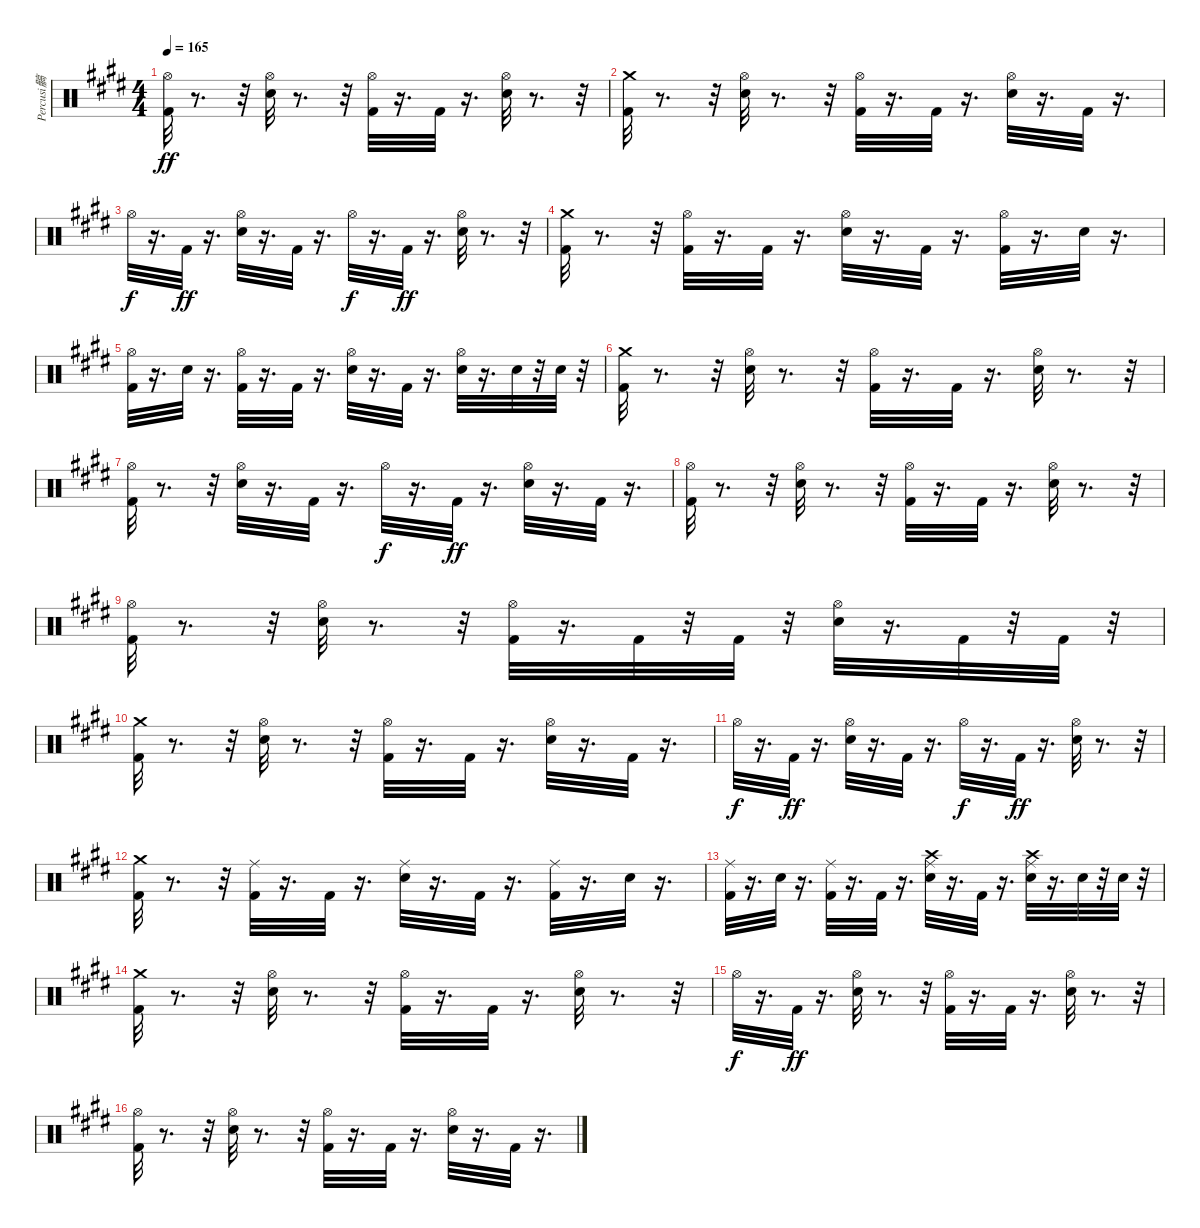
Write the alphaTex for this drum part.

\track ("Percusi髇" "Percusi髇") {instrument percussion}
\staff {score}
\articulation defaults
\ts (4 4)
\tempo 165
\clef neutral
\ks e
("Kick (hit) 2" "Hi-Hat (open)").32{dy ff} r.8{d} r.32 ("Electric Snare (hit)" "Hi-Hat (open)").32 r.8{d} r.32 ("Kick (hit) 2" "Hi-Hat (open)").32 r.16{d} "Kick (hit) 2".32 r.16{d} ("Electric Snare (hit)" "Hi-Hat (open)").32 r.8{d} r.32 |
("Crash medium (hit)" "Kick (hit) 2").32 r.8{d} r.32 ("Electric Snare (hit)" "Hi-Hat (open)").32 r.8{d} r.32 ("Kick (hit) 2" "Hi-Hat (open)").32 r.16{d} "Kick (hit) 2".32 r.16{d} ("Electric Snare (hit)" "Hi-Hat (open)").32 r.16{d} "Kick (hit) 2".32 r.16{d} |
"Hi-Hat (open)".32{dy f} r.16{d} "Kick (hit) 2".32{dy ff} r.16{d} ("Electric Snare (hit)" "Hi-Hat (open)").32 r.16{d} "Kick (hit) 2".32 r.16{d} "Hi-Hat (open)".32{dy f} r.16{d} "Kick (hit) 2".32{dy ff} r.16{d} ("Electric Snare (hit)" "Hi-Hat (open)").32 r.8{d} r.32 |
("Crash medium (hit)" "Kick (hit) 2").32 r.8{d} r.32 ("Kick (hit) 2" "Hi-Hat (open)").32 r.16{d} "Kick (hit) 2".32 r.16{d} ("Electric Snare (hit)" "Hi-Hat (open)").32 r.16{d} "Kick (hit) 2".32 r.16{d} ("Kick (hit) 2" "Hi-Hat (open)").32 r.16{d} "Electric Snare (hit)".32 r.16{d} |
("Kick (hit) 2" "Hi-Hat (open)").32 r.16{d} "Electric Snare (hit)".32 r.16{d} ("Kick (hit) 2" "Hi-Hat (open)").32 r.16{d} "Kick (hit) 2".32 r.16{d} ("Electric Snare (hit)" "Hi-Hat (open)").32 r.16{d} "Kick (hit) 2".32 r.16{d} ("Electric Snare (hit)" "Hi-Hat (open)").32 r.16{d} "Electric Snare (hit)".32 r.32 "Electric Snare (hit)".32 r.32 |
("Crash medium (hit)" "Kick (hit) 2").32 r.8{d} r.32 ("Electric Snare (hit)" "Hi-Hat (open)").32 r.8{d} r.32 ("Kick (hit) 2" "Hi-Hat (open)").32 r.16{d} "Kick (hit) 2".32 r.16{d} ("Electric Snare (hit)" "Hi-Hat (open)").32 r.8{d} r.32 |
("Kick (hit) 2" "Hi-Hat (open)").32 r.8{d} r.32 ("Electric Snare (hit)" "Hi-Hat (open)").32 r.16{d} "Kick (hit) 2".32 r.16{d} "Hi-Hat (open)".32{dy f} r.16{d} "Kick (hit) 2".32{dy ff} r.16{d} ("Electric Snare (hit)" "Hi-Hat (open)").32 r.16{d} "Kick (hit) 2".32 r.16{d} |
("Hi-Hat (open)" "Kick (hit) 2").32 r.8{d} r.32 ("Electric Snare (hit)" "Hi-Hat (open)").32 r.8{d} r.32 ("Kick (hit) 2" "Hi-Hat (open)").32 r.16{d} "Kick (hit) 2".32 r.16{d} ("Electric Snare (hit)" "Hi-Hat (open)").32 r.8{d} r.32 |
("Kick (hit) 2" "Hi-Hat (open)").32 r.8{d} r.32 ("Electric Snare (hit)" "Hi-Hat (open)").32 r.8{d} r.32 ("Kick (hit) 2" "Hi-Hat (open)").32 r.16{d} "Kick (hit) 2".32 r.32 "Kick (hit) 2".32 r.32 ("Electric Snare (hit)" "Hi-Hat (open)").32 r.16{d} "Kick (hit) 2".32 r.32 "Kick (hit) 2".32 r.32 |
("Crash medium (hit)" "Kick (hit) 2").32 r.8{d} r.32 ("Electric Snare (hit)" "Hi-Hat (open)").32 r.8{d} r.32 ("Kick (hit) 2" "Hi-Hat (open)").32 r.16{d} "Kick (hit) 2".32 r.16{d} ("Electric Snare (hit)" "Hi-Hat (open)").32 r.16{d} "Kick (hit) 2".32 r.16{d} |
"Hi-Hat (open)".32{dy f} r.16{d} "Kick (hit) 2".32{dy ff} r.16{d} ("Electric Snare (hit)" "Hi-Hat (open)").32 r.16{d} "Kick (hit) 2".32 r.16{d} "Hi-Hat (open)".32{dy f} r.16{d} "Kick (hit) 2".32{dy ff} r.16{d} ("Electric Snare (hit)" "Hi-Hat (open)").32 r.8{d} r.32 |
("Crash medium (hit)" "Kick (hit) 2").32 r.8{d} r.32 ("Kick (hit) 2" "Ride (middle)").32 r.16{d} "Kick (hit) 2".32 r.16{d} ("Electric Snare (hit)" "Ride (middle)").32 r.16{d} "Kick (hit) 2".32 r.16{d} ("Kick (hit) 2" "Ride (middle)").32 r.16{d} "Electric Snare (hit)".32 r.16{d} |
("Kick (hit) 2" "Ride (middle)").32 r.16{d} "Electric Snare (hit)".32 r.16{d} ("Kick (hit) 2" "Ride (middle)").32 r.16{d} "Kick (hit) 2".32 r.16{d} ("Crash high (hit)" "Electric Snare (hit)" "Ride (middle)").32 r.16{d} "Kick (hit) 2".32 r.16{d} ("Crash high (hit)" "Electric Snare (hit)" "Ride (middle)").32 r.16{d} "Electric Snare (hit)".32 r.32 "Electric Snare (hit)".32 r.32 |
("Crash medium (hit)" "Kick (hit) 2").32 r.8{d} r.32 ("Electric Snare (hit)" "Hi-Hat (open)").32 r.8{d} r.32 ("Kick (hit) 2" "Hi-Hat (open)").32 r.16{d} "Kick (hit) 2".32 r.16{d} ("Electric Snare (hit)" "Hi-Hat (open)").32 r.8{d} r.32 |
"Hi-Hat (open)".32{dy f} r.16{d} "Kick (hit) 2".32{dy ff} r.16{d} ("Electric Snare (hit)" "Hi-Hat (open)").32 r.8{d} r.32 ("Kick (hit) 2" "Hi-Hat (open)").32 r.16{d} "Kick (hit) 2".32 r.16{d} ("Electric Snare (hit)" "Hi-Hat (open)").32 r.8{d} r.32 |
("Kick (hit) 2" "Hi-Hat (open)").32 r.8{d} r.32 ("Electric Snare (hit)" "Hi-Hat (open)").32 r.8{d} r.32 ("Kick (hit) 2" "Hi-Hat (open)").32 r.16{d} "Kick (hit) 2".32 r.16{d} ("Electric Snare (hit)" "Hi-Hat (open)").32 r.16{d} "Kick (hit) 2".32 r.16{d}
